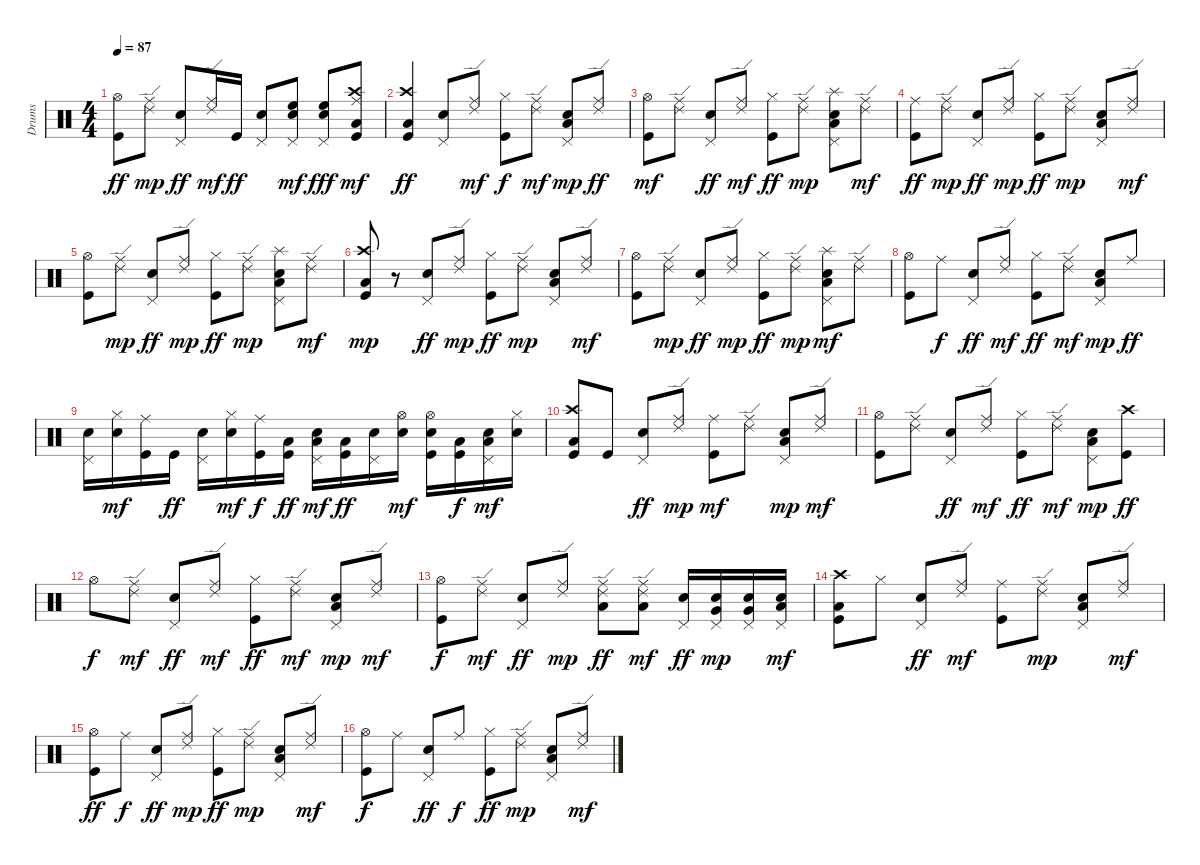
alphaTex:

\track ("Drums" "Drums") {instrument percussion}
\staff {score}
\articulation defaults
\ts (4 4)
\tempo 87
\clef neutral
\ks c
("Hi-Hat (open)" "Kick (hit)").8{dy ff} ("Ride (middle)" "Ride (edge) 2").8{dy mp} ("Pedal Hi-Hat (hit)" "Snare (hit) 2").8{dy ff} ("Ride (middle)" "Ride (edge) 2").16{dy mf} "Kick (hit)".16{dy ff} ("Pedal Hi-Hat (hit)" "Snare (hit) 2").8 ("Pedal Hi-Hat (hit)" "Snare (hit) 2" "High Floor Tom (hit)").8{dy mf} ("Pedal Hi-Hat (hit)" "Snare (hit) 2" "High Floor Tom (hit)").8{dy fff} ("Ride (middle)" "Crash high (hit)" "Kick (hit)" "Low Floor Tom (hit)").8{dy mf} |
("Crash high (hit)" "Kick (hit)" "Low Floor Tom (hit)").4{dy ff} ("Pedal Hi-Hat (hit)" "Snare (hit) 2").8 ("Ride (middle)" "Ride (edge) 2").8{dy mf} ("Hi-Hat (closed)" "Kick (hit)").8{dy f} ("Ride (middle)" "Ride (edge) 2").8{dy mf} ("Pedal Hi-Hat (hit)" "Snare (hit) 2" "Low Tom (hit)").8{dy mp} ("Ride (edge) 2" "Ride (middle)").8{dy ff} |
("Hi-Hat (open)" "Kick (hit)").8{dy mf} ("Ride (middle)" "Ride (edge) 2").8 ("Pedal Hi-Hat (hit)" "Snare (hit) 2").8{dy ff} ("Ride (middle)" "Ride (edge) 2").8{dy mf} ("Hi-Hat (closed)" "Kick (hit)").8{dy ff} ("Ride (middle)" "Ride (edge) 2").8{dy mp} ("Splash (hit)" "Pedal Hi-Hat (hit)" "Snare (hit) 2" "Low Tom (hit)").8 ("Ride (middle)" "Ride (edge) 2").8{dy mf} |
("Ride (middle)" "Kick (hit)").8{dy ff} ("Ride (middle)" "Ride (edge) 2").8{dy mp} ("Pedal Hi-Hat (hit)" "Snare (hit) 2").8{dy ff} ("Ride (middle)" "Ride (edge) 2").8{dy mp} ("Hi-Hat (closed)" "Kick (hit)").8{dy ff} ("Ride (middle)" "Ride (edge) 2").8{dy mp} ("Pedal Hi-Hat (hit)" "Snare (hit) 2" "Low Tom (hit)").8 ("Ride (middle)" "Ride (edge) 2").8{dy mf} |
("Hi-Hat (open)" "Kick (hit)").8 ("Ride (middle)" "Ride (edge) 2").8{dy mp} ("Pedal Hi-Hat (hit)" "Snare (hit) 2").8{dy ff} ("Ride (middle)" "Ride (edge) 2").8{dy mp} ("Hi-Hat (closed)" "Kick (hit)").8{dy ff} ("Ride (middle)" "Ride (edge) 2").8{dy mp} ("Splash (hit)" "Pedal Hi-Hat (hit)" "Snare (hit) 2" "Low Tom (hit)").8 ("Ride (middle)" "Ride (edge) 2").8{dy mf} |
("Crash high (hit)" "Kick (hit)" "Low Floor Tom (hit)").8{dy mp} r.8 ("Pedal Hi-Hat (hit)" "Snare (hit) 2").8{dy ff} ("Ride (middle)" "Ride (edge) 2").8{dy mp} ("Hi-Hat (closed)" "Kick (hit)").8{dy ff} ("Ride (middle)" "Ride (edge) 2").8{dy mp} ("Pedal Hi-Hat (hit)" "Snare (hit) 2" "Low Tom (hit)").8 ("Ride (middle)" "Ride (edge) 2").8{dy mf} |
("Hi-Hat (open)" "Kick (hit)").8 ("Ride (middle)" "Ride (edge) 2").8{dy mp} ("Pedal Hi-Hat (hit)" "Snare (hit) 2").8{dy ff} ("Ride (middle)" "Ride (edge) 2").8{dy mp} ("Hi-Hat (closed)" "Kick (hit)").8{dy ff} ("Ride (middle)" "Ride (edge) 2").8{dy mp} ("Splash (hit)" "Pedal Hi-Hat (hit)" "Snare (hit) 2" "Low Tom (hit)").8{dy mf} ("Ride (middle)" "Ride (edge) 2").8 |
("Hi-Hat (open)" "Kick (hit)").8 "Ride (middle)".8{dy f} ("Pedal Hi-Hat (hit)" "Snare (hit) 2").8{dy ff} ("Ride (middle)" "Ride (edge) 2").8{dy mf} ("Hi-Hat (closed)" "Kick (hit)").8{dy ff} ("Ride (middle)" "Ride (edge) 2").8{dy mf} ("Pedal Hi-Hat (hit)" "Snare (hit) 2" "Low Tom (hit)").8{dy mp} "Ride (middle)".8{dy ff} |
("Pedal Hi-Hat (hit)" "Snare (hit) 2").16 ("Hi-Hat (closed)" "Snare (hit) 2").16{dy mf} ("Ride (middle)" "Kick (hit)").16 "Kick (hit)".16{dy ff} ("Pedal Hi-Hat (hit)" "Snare (hit) 2").16 ("Hi-Hat (closed)" "Snare (hit) 2").16{dy mf} ("Ride (middle)" "Kick (hit)").16{dy f} ("Kick (hit)" "Low Floor Tom (hit)").16{dy ff} ("Pedal Hi-Hat (hit)" "Snare (hit) 2" "Low Tom (hit)").16{dy mf} ("Kick (hit)" "Low Floor Tom (hit)").16{dy ff} ("Pedal Hi-Hat (hit)" "Snare (hit) 2").16 ("Hi-Hat (open)" "Snare (hit) 2").16{dy mf} ("Hi-Hat (open)" "Snare (hit) 2" "Kick (hit)").16 ("Kick (hit)" "Low Floor Tom (hit)").16{dy f} ("Pedal Hi-Hat (hit)" "Snare (hit) 2" "Low Floor Tom (hit)").16{dy mf} ("Hi-Hat (closed)" "Snare (hit) 2").16 |
("Crash high (hit)" "Kick (hit)" "Low Floor Tom (hit)").8 "Kick (hit)".8 ("Pedal Hi-Hat (hit)" "Snare (hit) 2").8{dy ff} ("Ride (middle)" "Ride (edge) 2").8{dy mp} ("Ride (middle)" "Kick (hit)").8{dy mf} ("Ride (middle)" "Ride (edge) 2").8 ("Pedal Hi-Hat (hit)" "Snare (hit) 2" "Low Tom (hit)").8{dy mp} ("Ride (middle)" "Ride (edge) 2").8{dy mf} |
("Hi-Hat (open)" "Kick (hit)").8 ("Ride (middle)" "Ride (edge) 2").8 ("Pedal Hi-Hat (hit)" "Snare (hit) 2").8{dy ff} ("Ride (middle)" "Ride (edge) 2").8{dy mf} ("Hi-Hat (closed)" "Kick (hit)").8{dy ff} ("Ride (middle)" "Ride (edge) 2").8{dy mf} ("Pedal Hi-Hat (hit)" "Snare (hit) 2" "Low Tom (hit)").8{dy mp} ("Crash high (hit)" "Kick (hit)").8{dy ff} |
"Hi-Hat (open)".8{dy f} ("Ride (middle)" "Ride (edge) 2").8{dy mf} ("Pedal Hi-Hat (hit)" "Snare (hit) 2").8{dy ff} ("Ride (middle)" "Ride (edge) 2").8{dy mf} ("Hi-Hat (closed)" "Kick (hit)").8{dy ff} ("Ride (middle)" "Ride (edge) 2").8{dy mf} ("Pedal Hi-Hat (hit)" "Snare (hit) 2" "Low Tom (hit)").8{dy mp} ("Ride (edge) 2" "Ride (middle)").8{dy mf} |
("Hi-Hat (open)" "Kick (hit)").8{dy f} ("Ride (middle)" "Ride (edge) 2").8{dy mf} ("Pedal Hi-Hat (hit)" "Snare (hit) 2").8{dy ff} ("Ride (middle)" "Ride (edge) 2").8{dy mp} ("Ride (middle)" "Ride (edge) 2" "Low Tom (hit)").8{dy ff} ("Ride (middle)" "Ride (edge) 2" "Low Tom (hit)").8{dy mf} ("Pedal Hi-Hat (hit)" "Snare (hit) 2").16{dy ff} ("Pedal Hi-Hat (hit)" "Snare (hit) 2" "Very Low Tom (hit)").16{dy mp} ("Pedal Hi-Hat (hit)" "Snare (hit) 2" "Very Low Tom (hit)").16 ("Pedal Hi-Hat (hit)" "Snare (hit) 2" "Low Floor Tom (hit)").16{dy mf} |
("Crash high (hit)" "Kick (hit)" "Low Floor Tom (hit)").8 "Hi-Hat (closed)".8 ("Pedal Hi-Hat (hit)" "Snare (hit) 2").8{dy ff} ("Ride (middle)" "Ride (edge) 2").8{dy mf} ("Ride (middle)" "Kick (hit)").8 ("Ride (middle)" "Ride (edge) 2").8{dy mp} ("Pedal Hi-Hat (hit)" "Snare (hit) 2" "Low Tom (hit)").8 ("Ride (middle)" "Ride (edge) 2").8{dy mf} |
("Hi-Hat (open)" "Kick (hit)").8{dy ff} "Ride (middle)".8{dy f} ("Pedal Hi-Hat (hit)" "Snare (hit) 2").8{dy ff} ("Ride (middle)" "Ride (edge) 2").8{dy mp} ("Hi-Hat (closed)" "Kick (hit)").8{dy ff} ("Ride (middle)" "Ride (edge) 2").8{dy mp} ("Pedal Hi-Hat (hit)" "Snare (hit) 2" "Low Tom (hit)").8 ("Ride (edge) 2" "Ride (middle)").8{dy mf} |
("Hi-Hat (open)" "Kick (hit)").8{dy f} "Ride (middle)".8 ("Pedal Hi-Hat (hit)" "Snare (hit) 2").8{dy ff} "Ride (middle)".8{dy f} ("Hi-Hat (closed)" "Kick (hit)").8{dy ff} ("Ride (middle)" "Ride (edge) 2").8{dy mp} ("Pedal Hi-Hat (hit)" "Snare (hit) 2" "Low Tom (hit)").8 ("Ride (edge) 2" "Ride (middle)").8{dy mf}
